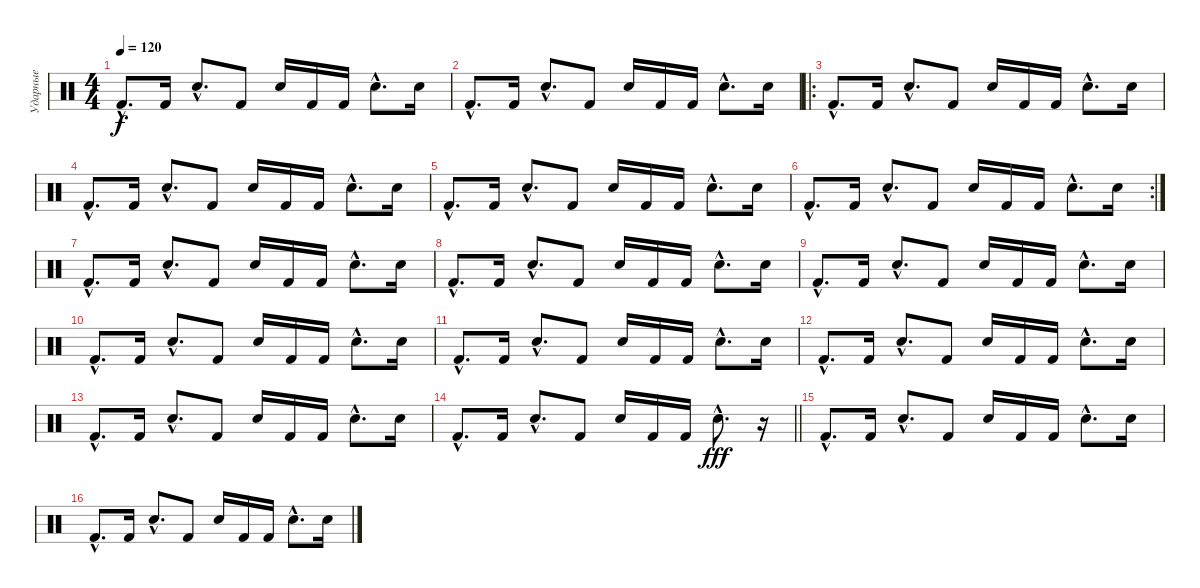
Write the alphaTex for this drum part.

\track ("Ударные" "Ударные") {instrument percussion}
\staff {score}
\articulation defaults
\ts (4 4)
\tempo 120
\clef neutral
\ks c "Kick (hit) 2"{hac}.8{d dy f} "Kick (hit) 2".16 "Electric Snare (hit)"{hac}.8{d} "Kick (hit) 2".8 "Electric Snare (hit)".16 "Kick (hit) 2".16 "Kick (hit) 2".16 "Electric Snare (hit)"{hac}.8{d} "Electric Snare (hit)".16
|
"Kick (hit) 2"{hac}.8{d} "Kick (hit) 2".16 "Electric Snare (hit)"{hac}.8{d} "Kick (hit) 2".8 "Electric Snare (hit)".16 "Kick (hit) 2".16 "Kick (hit) 2".16 "Electric Snare (hit)"{hac}.8{d} "Electric Snare (hit)".16 |
\ro "Kick (hit) 2"{hac}.8{d} "Kick (hit) 2".16 "Electric Snare (hit)"{hac}.8{d} "Kick (hit) 2".8 "Electric Snare (hit)".16 "Kick (hit) 2".16 "Kick (hit) 2".16 "Electric Snare (hit)"{hac}.8{d} "Electric Snare (hit)".16
|
"Kick (hit) 2"{hac}.8{d} "Kick (hit) 2".16 "Electric Snare (hit)"{hac}.8{d} "Kick (hit) 2".8 "Electric Snare (hit)".16 "Kick (hit) 2".16 "Kick (hit) 2".16 "Electric Snare (hit)"{hac}.8{d} "Electric Snare (hit)".16 |
"Kick (hit) 2"{hac}.8{d} "Kick (hit) 2".16 "Electric Snare (hit)"{hac}.8{d} "Kick (hit) 2".8 "Electric Snare (hit)".16 "Kick (hit) 2".16 "Kick (hit) 2".16 "Electric Snare (hit)"{hac}.8{d} "Electric Snare (hit)".16 |
\rc 2 "Kick (hit) 2"{hac}.8{d} "Kick (hit) 2".16 "Electric Snare (hit)"{hac}.8{d} "Kick (hit) 2".8 "Electric Snare (hit)".16 "Kick (hit) 2".16 "Kick (hit) 2".16 "Electric Snare (hit)"{hac}.8{d} "Electric Snare (hit)".16
|
"Kick (hit) 2"{hac}.8{d} "Kick (hit) 2".16 "Electric Snare (hit)"{hac}.8{d} "Kick (hit) 2".8 "Electric Snare (hit)".16 "Kick (hit) 2".16 "Kick (hit) 2".16 "Electric Snare (hit)"{hac}.8{d} "Electric Snare (hit)".16 |
"Kick (hit) 2"{hac}.8{d} "Kick (hit) 2".16 "Electric Snare (hit)"{hac}.8{d} "Kick (hit) 2".8 "Electric Snare (hit)".16 "Kick (hit) 2".16 "Kick (hit) 2".16 "Electric Snare (hit)"{hac}.8{d} "Electric Snare (hit)".16 |
"Kick (hit) 2"{hac}.8{d} "Kick (hit) 2".16 "Electric Snare (hit)"{hac}.8{d} "Kick (hit) 2".8 "Electric Snare (hit)".16 "Kick (hit) 2".16 "Kick (hit) 2".16 "Electric Snare (hit)"{hac}.8{d} "Electric Snare (hit)".16 |
"Kick (hit) 2"{hac}.8{d} "Kick (hit) 2".16 "Electric Snare (hit)"{hac}.8{d} "Kick (hit) 2".8 "Electric Snare (hit)".16 "Kick (hit) 2".16 "Kick (hit) 2".16 "Electric Snare (hit)"{hac}.8{d} "Electric Snare (hit)".16 |
"Kick (hit) 2"{hac}.8{d} "Kick (hit) 2".16 "Electric Snare (hit)"{hac}.8{d} "Kick (hit) 2".8 "Electric Snare (hit)".16 "Kick (hit) 2".16 "Kick (hit) 2".16 "Electric Snare (hit)"{hac}.8{d} "Electric Snare (hit)".16 |
"Kick (hit) 2"{hac}.8{d} "Kick (hit) 2".16 "Electric Snare (hit)"{hac}.8{d} "Kick (hit) 2".8 "Electric Snare (hit)".16 "Kick (hit) 2".16 "Kick (hit) 2".16 "Electric Snare (hit)"{hac}.8{d} "Electric Snare (hit)".16 |
"Kick (hit) 2"{hac}.8{d} "Kick (hit) 2".16 "Electric Snare (hit)"{hac}.8{d} "Kick (hit) 2".8 "Electric Snare (hit)".16 "Kick (hit) 2".16 "Kick (hit) 2".16 "Electric Snare (hit)"{hac}.8{d} "Electric Snare (hit)".16 |
\barLineRight lightlight "Kick (hit) 2"{hac}.8{d} "Kick (hit) 2".16 "Electric Snare (hit)"{hac}.8{d} "Kick (hit) 2".8 "Electric Snare (hit)".16 "Kick (hit) 2".16 "Kick (hit) 2".16 "Electric Snare (hit)"{hac}.8{d dy fff volume 16}
r.16 |
"Kick (hit) 2"{hac}.8{d volume 16} "Kick (hit) 2".16 "Electric Snare (hit)"{hac}.8{d} "Kick (hit) 2".8 "Electric Snare (hit)".16 "Kick (hit) 2".16 "Kick (hit) 2".16 "Electric Snare (hit)"{hac}.8{d} "Electric Snare (hit)".16 |
"Kick (hit) 2"{hac}.8{d volume 16} "Kick (hit) 2".16 "Electric Snare (hit)"{hac}.8{d} "Kick (hit) 2".8 "Electric Snare (hit)".16 "Kick (hit) 2".16 "Kick (hit) 2".16 "Electric Snare (hit)"{hac}.8{d} "Electric Snare (hit)".16
